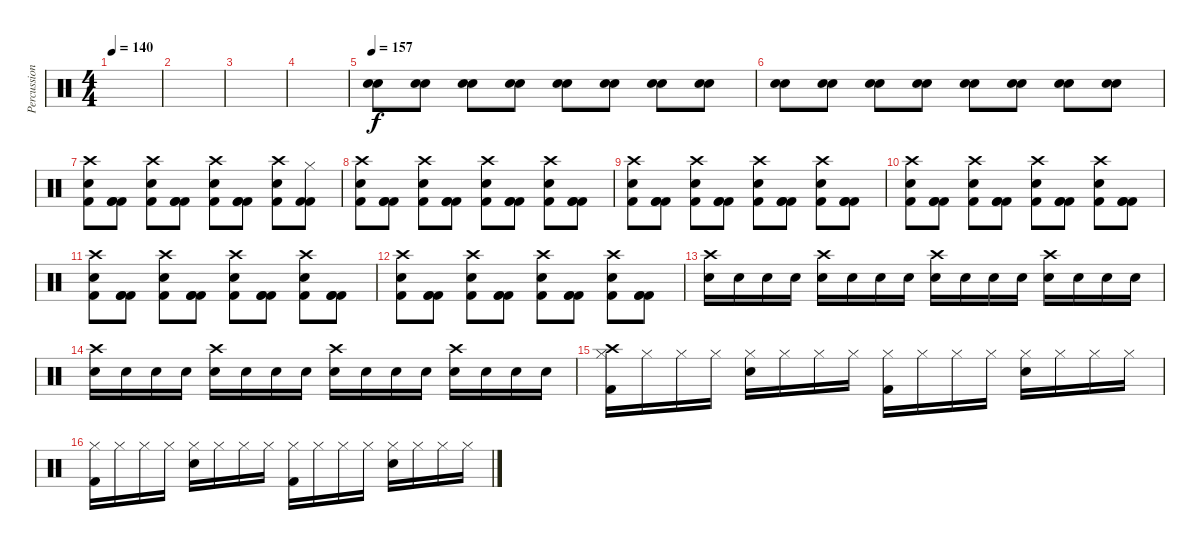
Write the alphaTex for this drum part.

\track ("Percussion" "Percussion") {instrument percussion}
\staff {score}
\articulation defaults
\ts (4 4)
\tempo 140
\clef neutral
\ks c
|
|
|
|
\tempo 157
("Electric Snare (hit)" "Snare (hit) 2").8 ("Electric Snare (hit)" "Snare (hit) 2").8 ("Electric Snare (hit)" "Snare (hit) 2").8 ("Electric Snare (hit)" "Snare (hit) 2").8 ("Electric Snare (hit)" "Snare (hit) 2").8 ("Electric Snare (hit)" "Snare (hit) 2").8 ("Electric Snare (hit)" "Snare (hit) 2").8 ("Electric Snare (hit)" "Snare (hit) 2").8 |
("Electric Snare (hit)" "Snare (hit) 2").8 ("Electric Snare (hit)" "Snare (hit) 2").8 ("Electric Snare (hit)" "Snare (hit) 2").8 ("Electric Snare (hit)" "Snare (hit) 2").8 ("Electric Snare (hit)" "Snare (hit) 2").8 ("Electric Snare (hit)" "Snare (hit) 2").8 ("Electric Snare (hit)" "Snare (hit) 2").8 ("Electric Snare (hit)" "Snare (hit) 2").8 |
("Electric Snare (hit)" "Kick (hit) 2" "Crash high (hit)").8 ("Kick (hit) 2" "Kick (hit) 2" "Kick (hit) 2").8 ("Electric Snare (hit)" "Kick (hit) 2" "Crash high (hit)").8 ("Kick (hit) 2" "Kick (hit) 2" "Kick (hit) 2").8 ("Electric Snare (hit)" "Kick (hit) 2" "Crash high (hit)").8 ("Kick (hit) 2" "Kick (hit) 2" "Kick (hit) 2").8 ("Electric Snare (hit)" "Kick (hit) 2" "Crash high (hit)").8 ("Kick (hit) 2" "Hi-Hat (closed)" "Kick (hit) 2").8 |
("Electric Snare (hit)" "Kick (hit) 2" "Crash high (hit)").8 ("Kick (hit) 2" "Kick (hit) 2" "Kick (hit) 2").8 ("Electric Snare (hit)" "Kick (hit) 2" "Crash high (hit)").8 ("Kick (hit) 2" "Kick (hit) 2" "Kick (hit) 2").8 ("Electric Snare (hit)" "Kick (hit) 2" "Crash high (hit)").8 ("Kick (hit) 2" "Kick (hit) 2" "Kick (hit) 2").8 ("Electric Snare (hit)" "Kick (hit) 2" "Crash high (hit)").8 ("Kick (hit) 2" "Kick (hit) 2" "Kick (hit) 2").8 |
("Electric Snare (hit)" "Kick (hit) 2" "Crash high (hit)").8 ("Kick (hit) 2" "Kick (hit) 2" "Kick (hit) 2").8 ("Electric Snare (hit)" "Kick (hit) 2" "Crash high (hit)").8 ("Kick (hit) 2" "Kick (hit) 2" "Kick (hit) 2").8 ("Electric Snare (hit)" "Kick (hit) 2" "Crash high (hit)").8 ("Kick (hit) 2" "Kick (hit) 2" "Kick (hit) 2").8 ("Electric Snare (hit)" "Kick (hit) 2" "Crash high (hit)").8 ("Kick (hit) 2" "Kick (hit) 2" "Kick (hit) 2").8 |
("Electric Snare (hit)" "Kick (hit) 2" "Crash high (hit)").8 ("Kick (hit) 2" "Kick (hit) 2" "Kick (hit) 2").8 ("Electric Snare (hit)" "Kick (hit) 2" "Crash high (hit)").8 ("Kick (hit) 2" "Kick (hit) 2" "Kick (hit) 2").8 ("Electric Snare (hit)" "Kick (hit) 2" "Crash high (hit)").8 ("Kick (hit) 2" "Kick (hit) 2" "Kick (hit) 2").8 ("Electric Snare (hit)" "Kick (hit) 2" "Crash high (hit)").8 ("Kick (hit) 2" "Kick (hit) 2" "Kick (hit) 2").8 |
("Electric Snare (hit)" "Kick (hit) 2" "Crash high (hit)").8 ("Kick (hit) 2" "Kick (hit) 2" "Kick (hit) 2").8 ("Electric Snare (hit)" "Kick (hit) 2" "Crash high (hit)").8 ("Kick (hit) 2" "Kick (hit) 2" "Kick (hit) 2").8 ("Electric Snare (hit)" "Kick (hit) 2" "Crash high (hit)").8 ("Kick (hit) 2" "Kick (hit) 2" "Kick (hit) 2").8 ("Electric Snare (hit)" "Kick (hit) 2" "Crash high (hit)").8 ("Kick (hit) 2" "Kick (hit) 2" "Kick (hit) 2").8 |
("Electric Snare (hit)" "Kick (hit) 2" "Crash high (hit)").8 ("Kick (hit) 2" "Kick (hit) 2" "Kick (hit) 2").8 ("Electric Snare (hit)" "Kick (hit) 2" "Crash high (hit)").8 ("Kick (hit) 2" "Kick (hit) 2" "Kick (hit) 2").8 ("Electric Snare (hit)" "Kick (hit) 2" "Crash high (hit)").8 ("Kick (hit) 2" "Kick (hit) 2" "Kick (hit) 2").8 ("Electric Snare (hit)" "Kick (hit) 2" "Crash high (hit)").8 ("Kick (hit) 2" "Kick (hit) 2" "Kick (hit) 2").8 |
("Crash high (hit)" "Snare (hit) 2").16 "Snare (hit) 2".16 "Snare (hit) 2".16 "Snare (hit) 2".16 ("Crash high (hit)" "Snare (hit) 2").16 "Snare (hit) 2".16 "Snare (hit) 2".16 "Snare (hit) 2".16 ("Crash high (hit)" "Snare (hit) 2").16 "Snare (hit) 2".16 "Snare (hit) 2".16 "Snare (hit) 2".16 ("Crash high (hit)" "Snare (hit) 2").16 "Snare (hit) 2".16 "Snare (hit) 2".16 "Snare (hit) 2".16 |
("Crash high (hit)" "Snare (hit) 2").16 "Snare (hit) 2".16 "Snare (hit) 2".16 "Snare (hit) 2".16 ("Crash high (hit)" "Snare (hit) 2").16 "Snare (hit) 2".16 "Snare (hit) 2".16 "Snare (hit) 2".16 ("Crash high (hit)" "Snare (hit) 2").16 "Snare (hit) 2".16 "Snare (hit) 2".16 "Snare (hit) 2".16 ("Crash high (hit)" "Snare (hit) 2").16 "Snare (hit) 2".16 "Snare (hit) 2".16 "Snare (hit) 2".16 |
("Kick (hit) 2" "Hi-Hat (closed)" "Crash high (hit)").16 "Hi-Hat (closed)".16 "Hi-Hat (closed)".16 "Hi-Hat (closed)".16 ("Electric Snare (hit)" "Hi-Hat (closed)").16 "Hi-Hat (closed)".16 "Hi-Hat (closed)".16 "Hi-Hat (closed)".16 ("Kick (hit) 2" "Hi-Hat (closed)").16 "Hi-Hat (closed)".16 "Hi-Hat (closed)".16 "Hi-Hat (closed)".16 ("Electric Snare (hit)" "Hi-Hat (closed)").16 "Hi-Hat (closed)".16 "Hi-Hat (closed)".16 "Hi-Hat (closed)".16 |
("Kick (hit) 2" "Hi-Hat (closed)").16 "Hi-Hat (closed)".16 "Hi-Hat (closed)".16 "Hi-Hat (closed)".16 ("Electric Snare (hit)" "Hi-Hat (closed)").16 "Hi-Hat (closed)".16 "Hi-Hat (closed)".16 "Hi-Hat (closed)".16 ("Kick (hit) 2" "Hi-Hat (closed)").16 "Hi-Hat (closed)".16 "Hi-Hat (closed)".16 "Hi-Hat (closed)".16 ("Electric Snare (hit)" "Hi-Hat (closed)").16 "Hi-Hat (closed)".16 "Hi-Hat (closed)".16 "Hi-Hat (closed)".16
